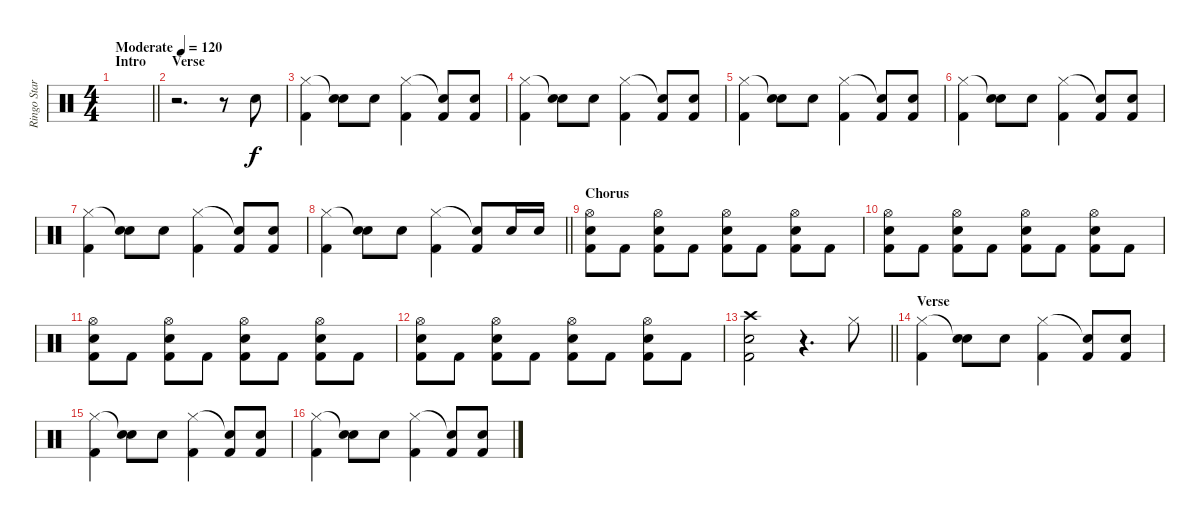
\track ("Ringo Starr" "Ringo Star") {instrument percussion}
\staff {score}
\articulation defaults
\ts (4 4)
\section ("" "Intro")
\tempo (120 "Moderate")
\clef neutral
\barLineRight lightlight
\ks c
|
\section ("" "Verse")
r.2{d} r.8 "Snare (hit) 2".8 |
("Hi-Hat (closed)" "Kick (hit) 2").4 ("Snare (hit)"{t} "Electric Snare (hit)").8 "Electric Snare (hit)".8 ("Hi-Hat (closed)" "Kick (hit) 2").4 ("Snare (hit)"{t} "Kick (hit) 2").8 ("Snare (hit) 2" "Kick (hit) 2").8 |
("Hi-Hat (closed)" "Kick (hit) 2").4 ("Snare (hit)"{t} "Electric Snare (hit)").8 "Electric Snare (hit)".8 ("Hi-Hat (closed)" "Kick (hit) 2").4 ("Snare (hit)"{t} "Kick (hit) 2").8 ("Snare (hit) 2" "Kick (hit) 2").8 |
("Hi-Hat (closed)" "Kick (hit) 2").4 ("Snare (hit)"{t} "Electric Snare (hit)").8 "Electric Snare (hit)".8 ("Hi-Hat (closed)" "Kick (hit) 2").4 ("Snare (hit)"{t} "Kick (hit) 2").8 ("Snare (hit) 2" "Kick (hit) 2").8 |
("Hi-Hat (closed)" "Kick (hit) 2").4 ("Snare (hit)"{t} "Electric Snare (hit)").8 "Electric Snare (hit)".8 ("Hi-Hat (closed)" "Kick (hit) 2").4 ("Snare (hit)"{t} "Kick (hit) 2").8 ("Snare (hit) 2" "Kick (hit) 2").8 |
("Hi-Hat (closed)" "Kick (hit) 2").4 ("Snare (hit)"{t} "Electric Snare (hit)").8 "Electric Snare (hit)".8 ("Hi-Hat (closed)" "Kick (hit) 2").4 ("Snare (hit)"{t} "Kick (hit) 2").8 ("Snare (hit) 2" "Kick (hit) 2").8 |
\barLineRight lightlight
("Hi-Hat (closed)" "Kick (hit) 2").4 ("Snare (hit)"{t} "Electric Snare (hit)").8 "Electric Snare (hit)".8 ("Hi-Hat (closed)" "Kick (hit) 2").4 ("Snare (hit)"{t} "Kick (hit) 2").8 "Electric Snare (hit)".16 "Electric Snare (hit)".16 |
\section ("" "Chorus")
("Hi-Hat (open)" "Electric Snare (hit)" "Kick (hit) 2").8 "Kick (hit) 2".8 ("Hi-Hat (open)" "Electric Snare (hit)" "Kick (hit) 2").8 "Kick (hit) 2".8 ("Hi-Hat (open)" "Electric Snare (hit)" "Kick (hit) 2").8 "Kick (hit) 2".8 ("Hi-Hat (open)" "Electric Snare (hit)" "Kick (hit) 2").8 "Kick (hit) 2".8 |
("Hi-Hat (open)" "Electric Snare (hit)" "Kick (hit) 2").8 "Kick (hit) 2".8 ("Hi-Hat (open)" "Electric Snare (hit)" "Kick (hit) 2").8 "Kick (hit) 2".8 ("Hi-Hat (open)" "Electric Snare (hit)" "Kick (hit) 2").8 "Kick (hit) 2".8 ("Hi-Hat (open)" "Electric Snare (hit)" "Kick (hit) 2").8 "Kick (hit) 2".8 |
("Hi-Hat (open)" "Electric Snare (hit)" "Kick (hit) 2").8 "Kick (hit) 2".8 ("Hi-Hat (open)" "Electric Snare (hit)" "Kick (hit) 2").8 "Kick (hit) 2".8 ("Hi-Hat (open)" "Electric Snare (hit)" "Kick (hit) 2").8 "Kick (hit) 2".8 ("Hi-Hat (open)" "Electric Snare (hit)" "Kick (hit) 2").8 "Kick (hit) 2".8 |
("Hi-Hat (open)" "Electric Snare (hit)" "Kick (hit) 2").8 "Kick (hit) 2".8 ("Hi-Hat (open)" "Electric Snare (hit)" "Kick (hit) 2").8 "Kick (hit) 2".8 ("Hi-Hat (open)" "Electric Snare (hit)" "Kick (hit) 2").8 "Kick (hit) 2".8 ("Hi-Hat (open)" "Electric Snare (hit)" "Kick (hit) 2").8 "Kick (hit) 2".8 |
\barLineRight lightlight
("Crash high (hit)" "Electric Snare (hit)" "Kick (hit) 2").2 r.4{d} "Hi-Hat (closed)".8 |
\section ("" "Verse")
("Hi-Hat (closed)" "Kick (hit) 2").4 ("Snare (hit)"{t} "Electric Snare (hit)").8 "Electric Snare (hit)".8 ("Hi-Hat (closed)" "Kick (hit) 2").4 ("Snare (hit)"{t} "Kick (hit) 2").8 ("Snare (hit) 2" "Kick (hit) 2").8 |
("Hi-Hat (closed)" "Kick (hit) 2").4 ("Snare (hit)"{t} "Electric Snare (hit)").8 "Electric Snare (hit)".8 ("Hi-Hat (closed)" "Kick (hit) 2").4 ("Snare (hit)"{t} "Kick (hit) 2").8 ("Snare (hit) 2" "Kick (hit) 2").8 |
("Hi-Hat (closed)" "Kick (hit) 2").4 ("Snare (hit)"{t} "Electric Snare (hit)").8 "Electric Snare (hit)".8 ("Hi-Hat (closed)" "Kick (hit) 2").4 ("Snare (hit)"{t} "Kick (hit) 2").8 ("Snare (hit) 2" "Kick (hit) 2").8
